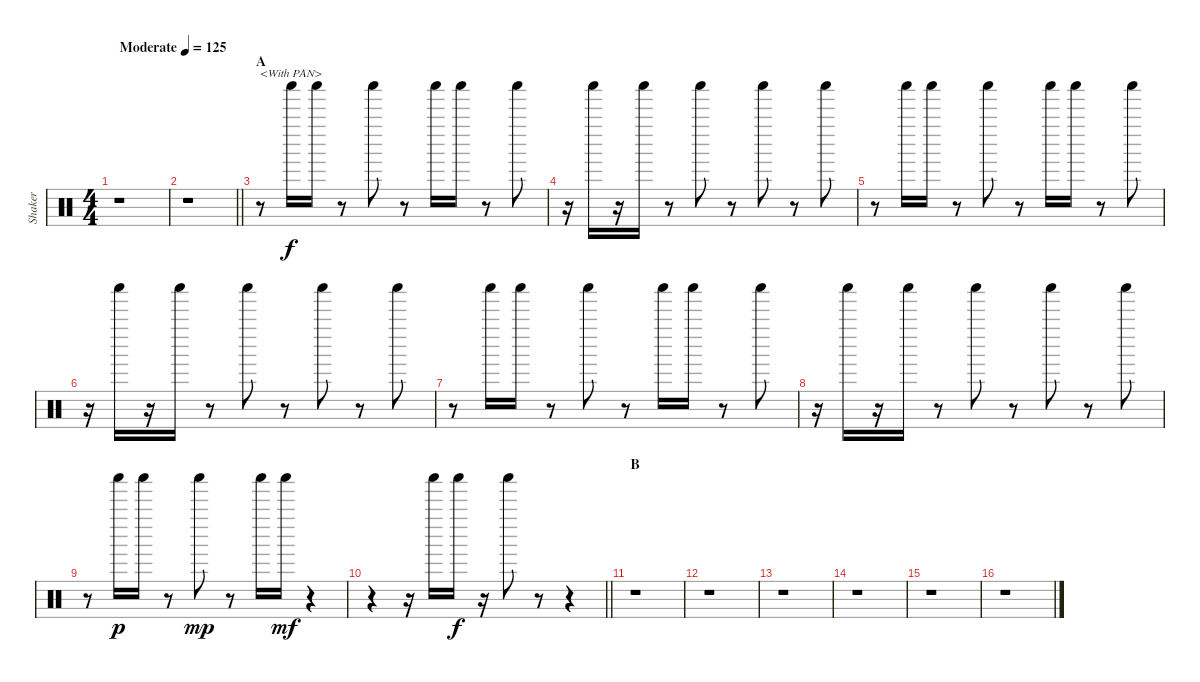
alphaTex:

\track ("Shaker" "Shaker") {instrument percussion}
\staff {score}
\articulation defaults
\ts (4 4)
\tempo (125 "Moderate")
\clef neutral
\ks c
r.1{dy f} |
\barLineRight lightlight
r.1 |
\section ("" "A")
r.8{txt "<With PAN>"} "Shaker (hit)".16 "Shaker (hit)".16 r.8 "Shaker (hit)".8 r.8 "Shaker (hit)".16 "Shaker (hit)".16 r.8 "Shaker (hit)".8 |
r.16 "Shaker (hit)".16 r.16 "Shaker (hit)".16 r.8 "Shaker (hit)".8 r.8 "Shaker (hit)".8 r.8 "Shaker (hit)".8 |
r.8 "Shaker (hit)".16 "Shaker (hit)".16 r.8 "Shaker (hit)".8 r.8 "Shaker (hit)".16 "Shaker (hit)".16 r.8 "Shaker (hit)".8 |
r.16 "Shaker (hit)".16 r.16 "Shaker (hit)".16 r.8 "Shaker (hit)".8 r.8 "Shaker (hit)".8 r.8 "Shaker (hit)".8 |
r.8 "Shaker (hit)".16 "Shaker (hit)".16 r.8 "Shaker (hit)".8 r.8 "Shaker (hit)".16 "Shaker (hit)".16 r.8 "Shaker (hit)".8 |
r.16 "Shaker (hit)".16 r.16 "Shaker (hit)".16 r.8 "Shaker (hit)".8 r.8 "Shaker (hit)".8 r.8 "Shaker (hit)".8 |
r.8 "Shaker (hit)".16{dy p} "Shaker (hit)".16 r.8 "Shaker (hit)".8{dy mp} r.8 "Shaker (hit)".16 "Shaker (hit)".16{dy mf} r.4 |
\barLineRight lightlight
r.4 r.16 "Shaker (hit)".16 "Shaker (hit)".16{dy f} r.16 "Shaker (hit)".8 r.8 r.4 |
\section ("" "B")
r.1 |
r.1 |
r.1 |
r.1 |
r.1 |
r.1
